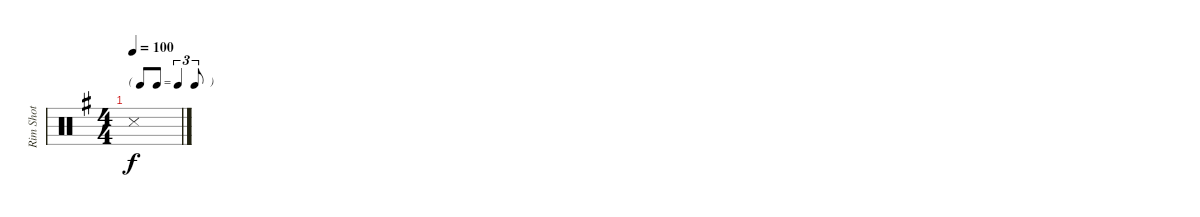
\track ("Rim Shot" "Rim Shot") {instrument percussion}
\staff {score}
\articulation defaults
\ts (4 4)
\tf triplet8th
\tempo 100
\clef neutral
\ks g "Snare (side stick) 3".1{dy f}
